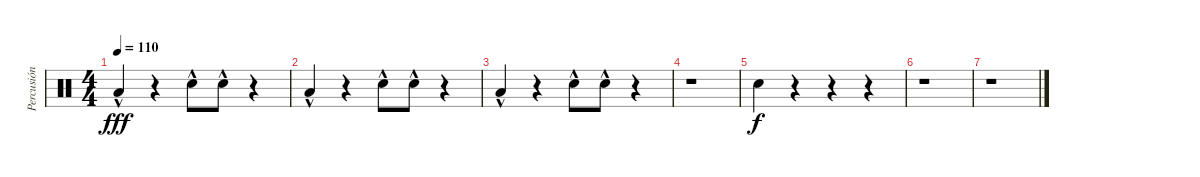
\track ("Percusión" "Percusión") {instrument percussion}
\staff {score}
\articulation defaults
\ts (4 4)
\tempo 110
\clef neutral
\ks c "Low Floor Tom (hit)"{hac}.4{dy fff}
r.4 "Snare (hit) 2"{hac}.8 "Snare (hit) 2"{hac}.8 r.4 |
"Low Floor Tom (hit)"{hac}.4 r.4 "Snare (hit) 2"{hac}.8 "Snare (hit) 2"{hac}.8 r.4 |
"Low Floor Tom (hit)"{hac}.4 r.4 "Snare (hit) 2"{hac}.8 "Snare (hit) 2"{hac}.8 r.4 |
r.1 |
"Electric Snare (hit)".4{dy f} r.4 r.4 r.4 |
r.1 |
r.1
